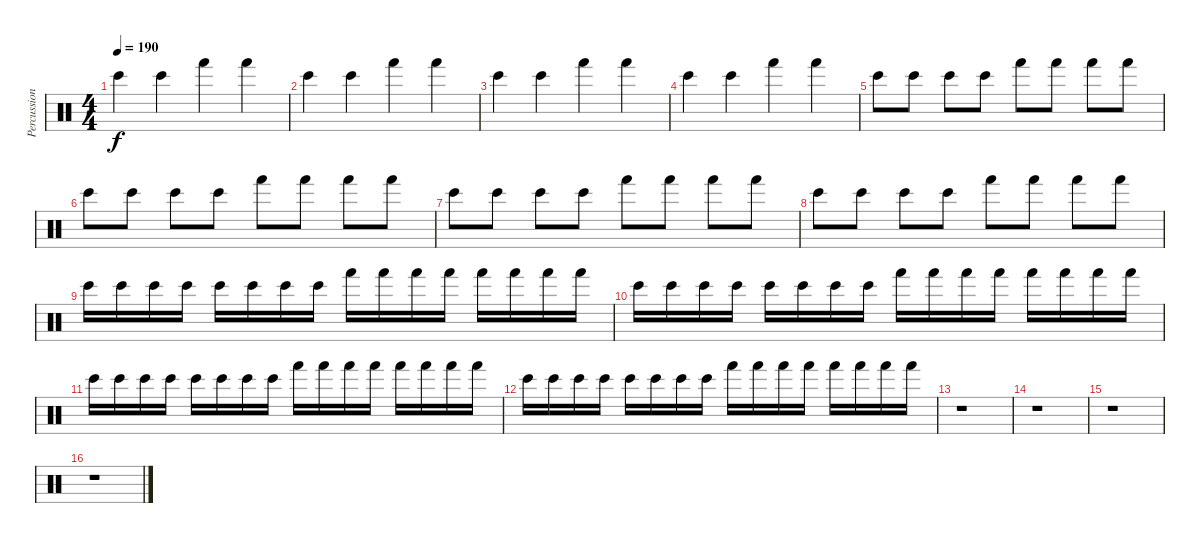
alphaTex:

\track ("Percussion" "Percussion") {instrument percussion}
\staff {score}
\articulation defaults
\ts (4 4)
\tempo 190
\clef neutral
\ks c "Bongo High (hit)".4{dy f} "Bongo High (hit)".4 "Hand (hit)".4 "Hand (hit)".4
|
"Bongo High (hit)".4 "Bongo High (hit)".4 "Hand (hit)".4 "Hand (hit)".4 |
"Bongo High (hit)".4 "Bongo High (hit)".4 "Hand (hit)".4 "Hand (hit)".4 |
"Bongo High (hit)".4 "Bongo High (hit)".4 "Hand (hit)".4 "Hand (hit)".4 |
"Bongo High (hit)".8 "Bongo High (hit)".8 "Bongo High (hit)".8 "Bongo High (hit)".8 "Hand (hit)".8 "Hand (hit)".8 "Hand (hit)".8 "Hand (hit)".8 |
"Bongo High (hit)".8 "Bongo High (hit)".8 "Bongo High (hit)".8 "Bongo High (hit)".8 "Hand (hit)".8 "Hand (hit)".8 "Hand (hit)".8 "Hand (hit)".8 |
"Bongo High (hit)".8 "Bongo High (hit)".8 "Bongo High (hit)".8 "Bongo High (hit)".8 "Hand (hit)".8 "Hand (hit)".8 "Hand (hit)".8 "Hand (hit)".8 |
"Bongo High (hit)".8 "Bongo High (hit)".8 "Bongo High (hit)".8 "Bongo High (hit)".8 "Hand (hit)".8 "Hand (hit)".8 "Hand (hit)".8 "Hand (hit)".8 |
"Bongo High (hit)".16 "Bongo High (hit)".16 "Bongo High (hit)".16 "Bongo High (hit)".16 "Bongo High (hit)".16 "Bongo High (hit)".16 "Bongo High (hit)".16 "Bongo High (hit)".16 "Hand (hit)".16 "Hand (hit)".16 "Hand (hit)".16 "Hand (hit)".16 "Hand (hit)".16 "Hand (hit)".16 "Hand (hit)".16 "Hand (hit)".16 |
"Bongo High (hit)".16 "Bongo High (hit)".16 "Bongo High (hit)".16 "Bongo High (hit)".16 "Bongo High (hit)".16 "Bongo High (hit)".16 "Bongo High (hit)".16 "Bongo High (hit)".16 "Hand (hit)".16 "Hand (hit)".16 "Hand (hit)".16 "Hand (hit)".16 "Hand (hit)".16 "Hand (hit)".16 "Hand (hit)".16 "Hand (hit)".16 |
"Bongo High (hit)".16 "Bongo High (hit)".16 "Bongo High (hit)".16 "Bongo High (hit)".16 "Bongo High (hit)".16 "Bongo High (hit)".16 "Bongo High (hit)".16 "Bongo High (hit)".16 "Hand (hit)".16 "Hand (hit)".16 "Hand (hit)".16 "Hand (hit)".16 "Hand (hit)".16 "Hand (hit)".16 "Hand (hit)".16 "Hand (hit)".16 |
"Bongo High (hit)".16 "Bongo High (hit)".16 "Bongo High (hit)".16 "Bongo High (hit)".16 "Bongo High (hit)".16 "Bongo High (hit)".16 "Bongo High (hit)".16 "Bongo High (hit)".16 "Hand (hit)".16 "Hand (hit)".16 "Hand (hit)".16 "Hand (hit)".16 "Hand (hit)".16 "Hand (hit)".16 "Hand (hit)".16 "Hand (hit)".16 |
r.1 |
r.1 |
r.1 |
r.1
